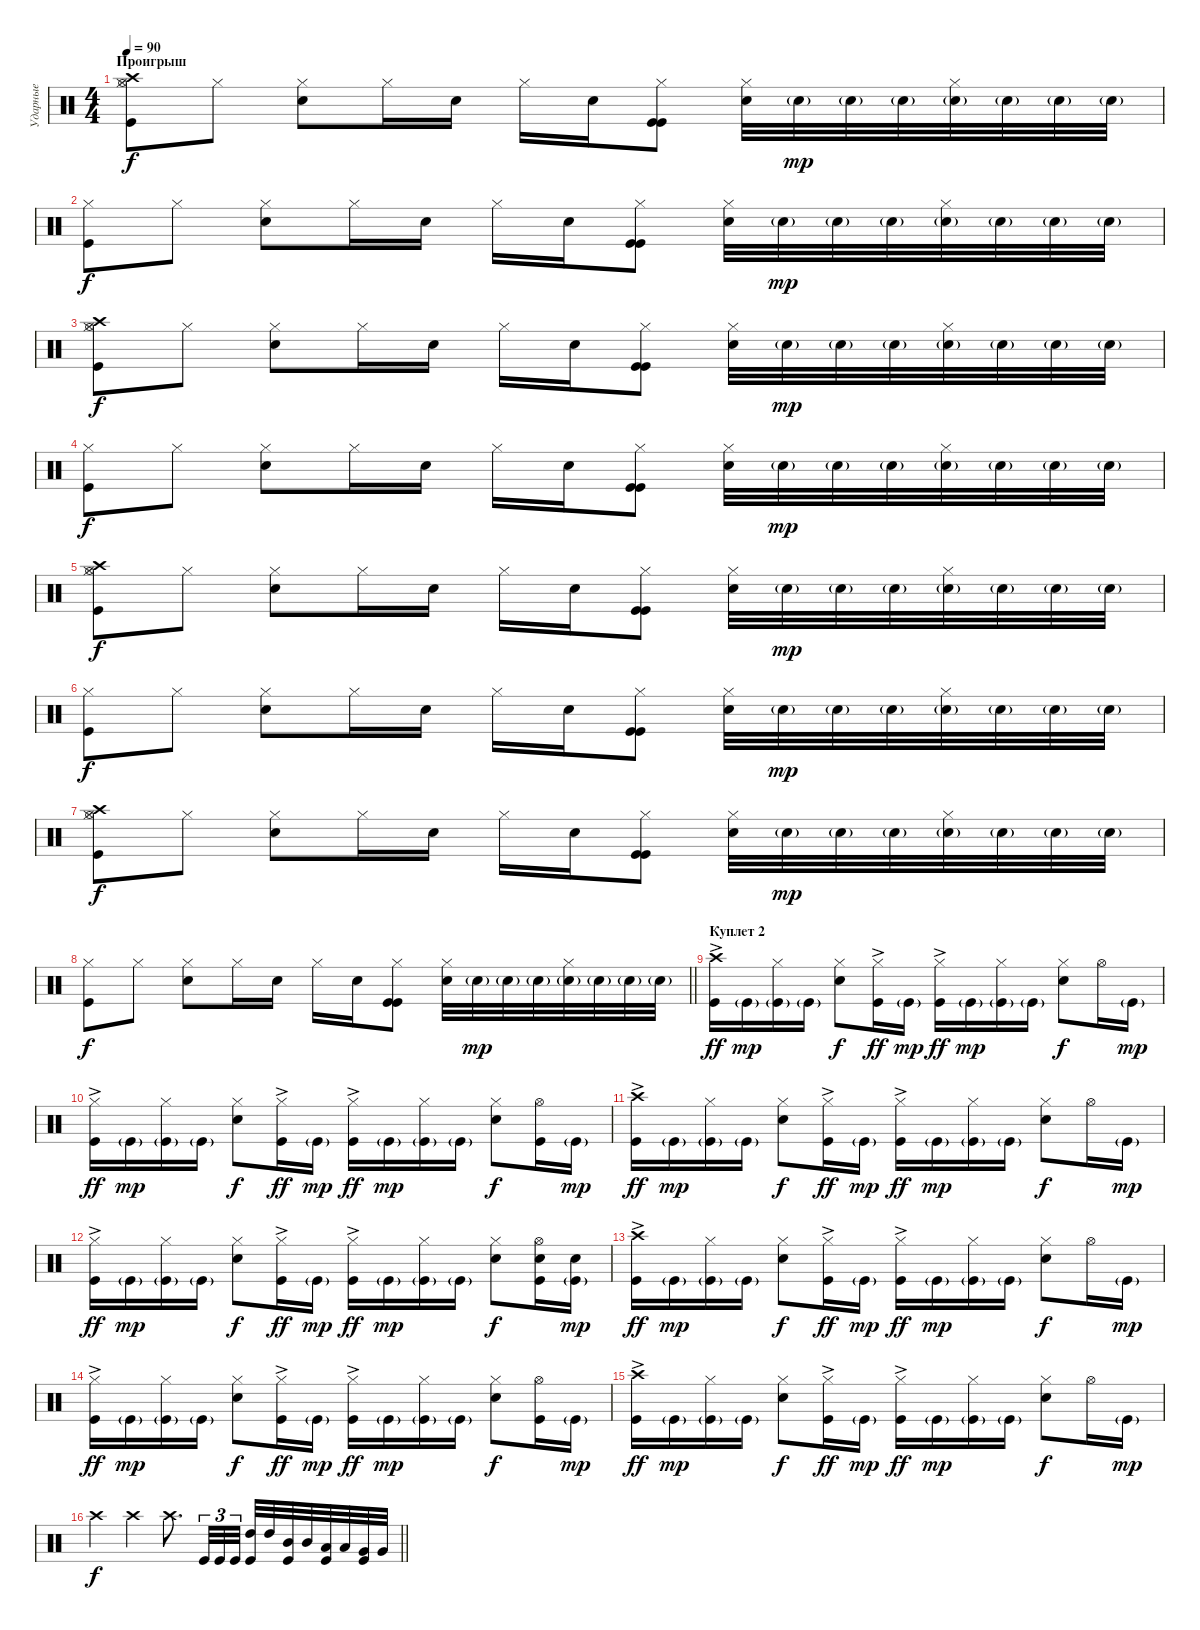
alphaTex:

\track ("Ударные" "Ударные") {instrument percussion}
\staff {score}
\articulation defaults
\ts (4 4)
\section ("" "Проигрыш")
\tempo 90
\clef neutral
\ks c
("Hi-Hat (closed)" "Kick (hit)" "Hi-Hat (open)" "Crash high (hit)").8{dy f volume 16} "Hi-Hat (closed)".8 ("Hi-Hat (closed)" "Electric Snare (hit)").8 "Hi-Hat (closed)".16 "Electric Snare (hit)".16 "Hi-Hat (closed)".16 "Electric Snare (hit)".16 ("Hi-Hat (closed)" "Kick (hit)" "Kick (hit)").8 ("Hi-Hat (closed)" "Electric Snare (hit)").32 "Snare (hit) 2"{g}.32{dy mp} "Snare (hit) 2"{g}.32 "Snare (hit) 2"{g}.32 ("Snare (hit) 2"{g} "Hi-Hat (closed)").32 "Snare (hit) 2"{g}.32 "Snare (hit) 2"{g}.32 "Snare (hit) 2"{g}.32 |
("Hi-Hat (closed)" "Kick (hit)").8{dy f} "Hi-Hat (closed)".8 ("Hi-Hat (closed)" "Electric Snare (hit)").8 "Hi-Hat (closed)".16 "Electric Snare (hit)".16 "Hi-Hat (closed)".16 "Electric Snare (hit)".16 ("Hi-Hat (closed)" "Kick (hit)" "Kick (hit)").8 ("Hi-Hat (closed)" "Electric Snare (hit)").32 "Snare (hit) 2"{g}.32{dy mp} "Snare (hit) 2"{g}.32 "Snare (hit) 2"{g}.32 ("Snare (hit) 2"{g} "Hi-Hat (closed)").32 "Snare (hit) 2"{g}.32 "Snare (hit) 2"{g}.32 "Snare (hit) 2"{g}.32 |
("Hi-Hat (closed)" "Kick (hit)" "Hi-Hat (open)" "Crash high (hit)").8{dy f} "Hi-Hat (closed)".8 ("Hi-Hat (closed)" "Electric Snare (hit)").8 "Hi-Hat (closed)".16 "Electric Snare (hit)".16 "Hi-Hat (closed)".16 "Electric Snare (hit)".16 ("Hi-Hat (closed)" "Kick (hit)" "Kick (hit)").8 ("Hi-Hat (closed)" "Electric Snare (hit)").32 "Snare (hit) 2"{g}.32{dy mp} "Snare (hit) 2"{g}.32 "Snare (hit) 2"{g}.32 ("Snare (hit) 2"{g} "Hi-Hat (closed)").32 "Snare (hit) 2"{g}.32 "Snare (hit) 2"{g}.32 "Snare (hit) 2"{g}.32 |
("Hi-Hat (closed)" "Kick (hit)").8{dy f} "Hi-Hat (closed)".8 ("Hi-Hat (closed)" "Electric Snare (hit)").8 "Hi-Hat (closed)".16 "Electric Snare (hit)".16 "Hi-Hat (closed)".16 "Electric Snare (hit)".16 ("Hi-Hat (closed)" "Kick (hit)" "Kick (hit)").8 ("Hi-Hat (closed)" "Electric Snare (hit)").32 "Snare (hit) 2"{g}.32{dy mp} "Snare (hit) 2"{g}.32 "Snare (hit) 2"{g}.32 ("Snare (hit) 2"{g} "Hi-Hat (closed)").32 "Snare (hit) 2"{g}.32 "Snare (hit) 2"{g}.32 "Snare (hit) 2"{g}.32 |
("Hi-Hat (closed)" "Kick (hit)" "Hi-Hat (open)" "Crash high (hit)").8{dy f volume 16} "Hi-Hat (closed)".8 ("Hi-Hat (closed)" "Electric Snare (hit)").8 "Hi-Hat (closed)".16 "Electric Snare (hit)".16 "Hi-Hat (closed)".16 "Electric Snare (hit)".16 ("Hi-Hat (closed)" "Kick (hit)" "Kick (hit)").8 ("Hi-Hat (closed)" "Electric Snare (hit)").32 "Snare (hit) 2"{g}.32{dy mp} "Snare (hit) 2"{g}.32 "Snare (hit) 2"{g}.32 ("Snare (hit) 2"{g} "Hi-Hat (closed)").32 "Snare (hit) 2"{g}.32 "Snare (hit) 2"{g}.32 "Snare (hit) 2"{g}.32 |
("Hi-Hat (closed)" "Kick (hit)").8{dy f} "Hi-Hat (closed)".8 ("Hi-Hat (closed)" "Electric Snare (hit)").8 "Hi-Hat (closed)".16 "Electric Snare (hit)".16 "Hi-Hat (closed)".16 "Electric Snare (hit)".16 ("Hi-Hat (closed)" "Kick (hit)" "Kick (hit)").8 ("Hi-Hat (closed)" "Electric Snare (hit)").32 "Snare (hit) 2"{g}.32{dy mp} "Snare (hit) 2"{g}.32 "Snare (hit) 2"{g}.32 ("Snare (hit) 2"{g} "Hi-Hat (closed)").32 "Snare (hit) 2"{g}.32 "Snare (hit) 2"{g}.32 "Snare (hit) 2"{g}.32 |
("Hi-Hat (closed)" "Kick (hit)" "Hi-Hat (open)" "Crash high (hit)").8{dy f volume 16} "Hi-Hat (closed)".8 ("Hi-Hat (closed)" "Electric Snare (hit)").8 "Hi-Hat (closed)".16 "Electric Snare (hit)".16 "Hi-Hat (closed)".16 "Electric Snare (hit)".16 ("Hi-Hat (closed)" "Kick (hit)" "Kick (hit)").8 ("Hi-Hat (closed)" "Electric Snare (hit)").32 "Snare (hit) 2"{g}.32{dy mp} "Snare (hit) 2"{g}.32 "Snare (hit) 2"{g}.32 ("Snare (hit) 2"{g} "Hi-Hat (closed)").32 "Snare (hit) 2"{g}.32 "Snare (hit) 2"{g}.32 "Snare (hit) 2"{g}.32 |
\barLineRight lightlight
("Hi-Hat (closed)" "Kick (hit)").8{dy f} "Hi-Hat (closed)".8 ("Hi-Hat (closed)" "Electric Snare (hit)").8 "Hi-Hat (closed)".16 "Electric Snare (hit)".16 "Hi-Hat (closed)".16 "Electric Snare (hit)".16 ("Hi-Hat (closed)" "Kick (hit)" "Kick (hit)").8 ("Hi-Hat (closed)" "Electric Snare (hit)").32 "Snare (hit) 2"{g}.32{dy mp} "Snare (hit) 2"{g}.32 "Snare (hit) 2"{g}.32 ("Snare (hit) 2"{g} "Hi-Hat (closed)").32 "Snare (hit) 2"{g}.32 "Snare (hit) 2"{g}.32 "Snare (hit) 2"{g}.32 |
\section ("" "Куплет 2")
("Kick (hit)"{ac} "Crash high (hit)").16{dy ff volume 16} "Kick (hit)"{g}.16{dy mp} ("Kick (hit)"{g} "Hi-Hat (closed)").16 "Kick (hit)"{g}.16 ("Electric Snare (hit)" "Hi-Hat (closed)").8{dy f} ("Kick (hit)"{ac} "Hi-Hat (closed)").16{dy ff} "Kick (hit)"{g}.16{dy mp} ("Kick (hit)"{ac} "Hi-Hat (closed)").16{dy ff} "Kick (hit)"{g}.16{dy mp} ("Kick (hit)"{g} "Hi-Hat (closed)").16 "Kick (hit)"{g}.16 ("Electric Snare (hit)" "Hi-Hat (closed)").8{dy f} "Hi-Hat (open)".16 "Kick (hit)"{g}.16{dy mp} |
("Kick (hit)"{ac} "Hi-Hat (closed)").16{dy ff} "Kick (hit)"{g}.16{dy mp} ("Kick (hit)"{g} "Hi-Hat (closed)").16 "Kick (hit)"{g}.16 ("Electric Snare (hit)" "Hi-Hat (closed)").8{dy f} ("Kick (hit)"{ac} "Hi-Hat (closed)").16{dy ff} "Kick (hit)"{g}.16{dy mp} ("Kick (hit)"{ac} "Hi-Hat (closed)").16{dy ff} "Kick (hit)"{g}.16{dy mp} ("Kick (hit)"{g} "Hi-Hat (closed)").16 "Kick (hit)"{g}.16 ("Electric Snare (hit)" "Hi-Hat (closed)").8{dy f} ("Kick (hit)" "Hi-Hat (open)").16 "Kick (hit)"{g}.16{dy mp} |
("Kick (hit)"{ac} "Crash high (hit)").16{dy ff} "Kick (hit)"{g}.16{dy mp} ("Kick (hit)"{g} "Hi-Hat (closed)").16 "Kick (hit)"{g}.16 ("Electric Snare (hit)" "Hi-Hat (closed)").8{dy f} ("Kick (hit)"{ac} "Hi-Hat (closed)").16{dy ff} "Kick (hit)"{g}.16{dy mp} ("Kick (hit)"{ac} "Hi-Hat (closed)").16{dy ff} "Kick (hit)"{g}.16{dy mp} ("Kick (hit)"{g} "Hi-Hat (closed)").16 "Kick (hit)"{g}.16 ("Electric Snare (hit)" "Hi-Hat (closed)").8{dy f} "Hi-Hat (open)".16 "Kick (hit)"{g}.16{dy mp} |
("Kick (hit)"{ac} "Hi-Hat (closed)").16{dy ff} "Kick (hit)"{g}.16{dy mp} ("Kick (hit)"{g} "Hi-Hat (closed)").16 "Kick (hit)"{g}.16 ("Electric Snare (hit)" "Hi-Hat (closed)").8{dy f} ("Kick (hit)"{ac} "Hi-Hat (closed)").16{dy ff} "Kick (hit)"{g}.16{dy mp} ("Kick (hit)"{ac} "Hi-Hat (closed)").16{dy ff} "Kick (hit)"{g}.16{dy mp} ("Kick (hit)"{g} "Hi-Hat (closed)").16 "Kick (hit)"{g}.16 ("Electric Snare (hit)" "Hi-Hat (closed)").8{dy f} ("Kick (hit)" "Hi-Hat (open)" "Electric Snare (hit)").16 ("Electric Snare (hit)" "Kick (hit)"{g}).16{dy mp} |
("Kick (hit)"{ac} "Crash high (hit)").16{dy ff} "Kick (hit)"{g}.16{dy mp} ("Kick (hit)"{g} "Hi-Hat (closed)").16 "Kick (hit)"{g}.16 ("Electric Snare (hit)" "Hi-Hat (closed)").8{dy f} ("Kick (hit)"{ac} "Hi-Hat (closed)").16{dy ff} "Kick (hit)"{g}.16{dy mp} ("Kick (hit)"{ac} "Hi-Hat (closed)").16{dy ff} "Kick (hit)"{g}.16{dy mp} ("Kick (hit)"{g} "Hi-Hat (closed)").16 "Kick (hit)"{g}.16 ("Electric Snare (hit)" "Hi-Hat (closed)").8{dy f} "Hi-Hat (open)".16 "Kick (hit)"{g}.16{dy mp} |
("Kick (hit)"{ac} "Hi-Hat (closed)").16{dy ff} "Kick (hit)"{g}.16{dy mp} ("Kick (hit)"{g} "Hi-Hat (closed)").16 "Kick (hit)"{g}.16 ("Electric Snare (hit)" "Hi-Hat (closed)").8{dy f} ("Kick (hit)"{ac} "Hi-Hat (closed)").16{dy ff} "Kick (hit)"{g}.16{dy mp} ("Kick (hit)"{ac} "Hi-Hat (closed)").16{dy ff} "Kick (hit)"{g}.16{dy mp} ("Kick (hit)"{g} "Hi-Hat (closed)").16 "Kick (hit)"{g}.16 ("Electric Snare (hit)" "Hi-Hat (closed)").8{dy f} ("Kick (hit)" "Hi-Hat (open)").16 "Kick (hit)"{g}.16{dy mp} |
("Kick (hit)"{ac} "Crash high (hit)").16{dy ff} "Kick (hit)"{g}.16{dy mp} ("Kick (hit)"{g} "Hi-Hat (closed)").16 "Kick (hit)"{g}.16 ("Electric Snare (hit)" "Hi-Hat (closed)").8{dy f} ("Kick (hit)"{ac} "Hi-Hat (closed)").16{dy ff} "Kick (hit)"{g}.16{dy mp} ("Kick (hit)"{ac} "Hi-Hat (closed)").16{dy ff} "Kick (hit)"{g}.16{dy mp} ("Kick (hit)"{g} "Hi-Hat (closed)").16 "Kick (hit)"{g}.16 ("Electric Snare (hit)" "Hi-Hat (closed)").8{dy f} "Hi-Hat (open)".16 "Kick (hit)"{g}.16{dy mp} |
\barLineRight lightlight "Crash high (hit)".4{dy f} "Crash high (hit)".4 "Crash high (hit)".8{d} "Kick (hit)".32{tu (3 2)} "Kick (hit)".32{tu (3 2)} "Kick (hit)".32{tu (3 2)}
("High Tom (hit)" "Kick (hit)").32 "High Tom (hit)".32 ("Mid Tom (hit)" "Kick (hit)").32 "Mid Tom (hit)".32 ("Low Tom (hit)" "Kick (hit)").32 "Low Tom (hit)".32 ("Very Low Tom (hit)" "Kick (hit)").32 "Very Low Tom (hit)".32
